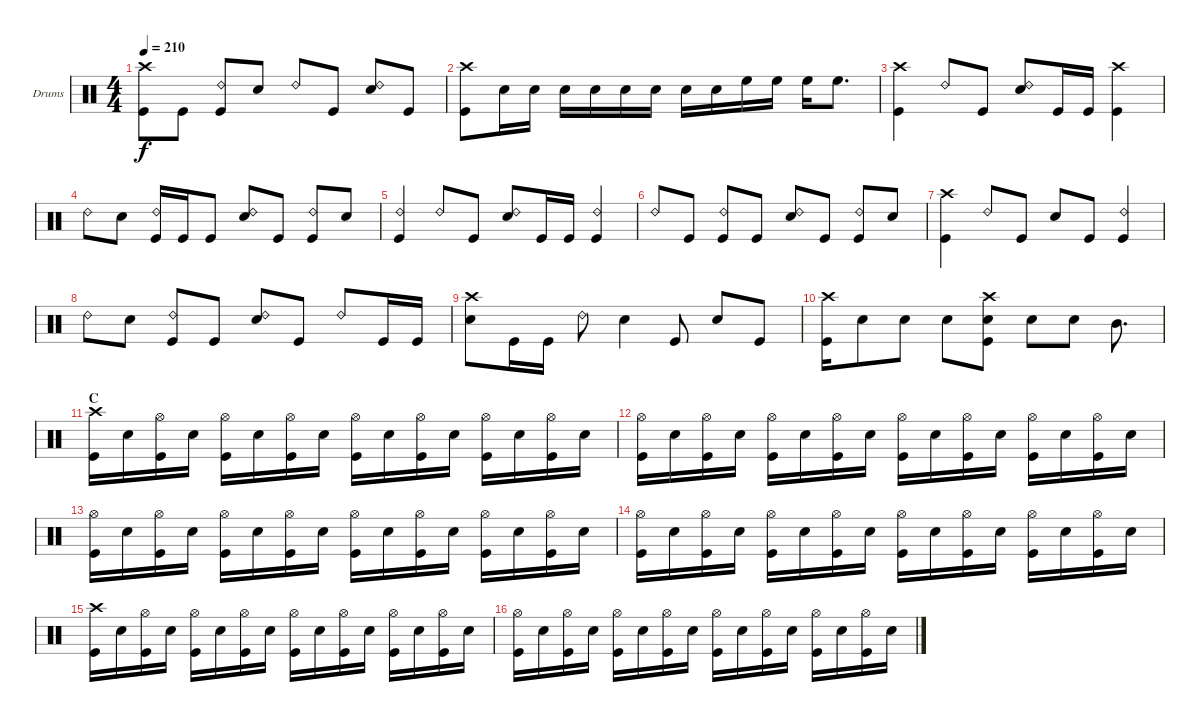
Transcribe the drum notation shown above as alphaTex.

\bracketExtendMode groupsimilarinstruments
\firstSystemTrackNameOrientation horizontal
\otherSystemsTrackNameOrientation horizontal
\track ("Drumkit" "Drums") {instrument percussion}
\staff {score}
\articulation defaults
\ts (4 4)
\tempo 210
\clef neutral
\ks c
("Crash high (hit)" "Kick (hit)").8{dy f} "Kick (hit)".8 ("Ride (bell) 2" "Kick (hit)").8 "Snare (hit) 2".8 "Ride (bell) 2".8 "Kick (hit)".8 ("Ride (bell) 2" "Snare (hit) 2").8 "Kick (hit)".8 |
("Crash high (hit)" "Kick (hit)").8 "Snare (hit) 2".16 "Snare (hit) 2".16 "Snare (hit) 2".16 "Snare (hit) 2".16 "Snare (hit) 2".16 "Snare (hit) 2".16 "Snare (hit) 2".16 "Snare (hit) 2".16 "High Floor Tom (hit)".16 "High Floor Tom (hit)".16 "High Floor Tom (hit)".16 "High Floor Tom (hit)".8{d} |
("Crash high (hit)" "Kick (hit)").4 "Ride (bell) 2".8 "Kick (hit)".8 ("Ride (bell) 2" "Snare (hit) 2").8 "Kick (hit)".16 "Kick (hit)".16 ("Crash high (hit)" "Kick (hit)").4 |
"Ride (bell) 2".8 "Snare (hit) 2".8 ("Ride (bell) 2" "Kick (hit)").16 "Kick (hit)".16 "Kick (hit)".8 ("Ride (bell) 2" "Snare (hit) 2").8 "Kick (hit)".8 ("Ride (bell) 2" "Kick (hit)").8 "Snare (hit) 2".8 |
("Ride (bell) 2" "Kick (hit)").4 "Ride (bell) 2".8 "Kick (hit)".8 ("Ride (bell) 2" "Snare (hit) 2").8 "Kick (hit)".16 "Kick (hit)".16 ("Ride (bell) 2" "Kick (hit)").4 |
"Ride (bell) 2".8 "Kick (hit)".8 ("Ride (bell) 2" "Kick (hit)").8 "Kick (hit)".8 ("Ride (bell) 2" "Snare (hit) 2").8 "Kick (hit)".8 ("Ride (bell) 2" "Kick (hit)").8 "Snare (hit) 2".8 |
("Crash high (hit)" "Kick (hit)").4 "Ride (bell) 2".8 "Kick (hit)".8 "Snare (hit) 2".8 "Kick (hit)".8 ("Ride (bell) 2" "Kick (hit)").4 |
"Ride (bell) 2".8 "Snare (hit) 2".8 ("Ride (bell) 2" "Kick (hit)").8 "Kick (hit)".8 ("Ride (bell) 2" "Snare (hit) 2").8 "Kick (hit)".8 "Ride (bell) 2".8 "Kick (hit)".16 "Kick (hit)".16 |
("Crash high (hit)" "Snare (hit) 2").8 "Kick (hit)".16 "Kick (hit)".16 "Ride (bell) 2".8 "Snare (hit) 2".4 "Kick (hit)".8 "Snare (hit) 2".8 "Kick (hit)".8 |
("Crash high (hit)" "Kick (hit)").16 "Snare (hit) 2".8 "Snare (hit) 2".8 "Snare (hit) 2".8 ("Crash high (hit)" "Snare (hit) 2" "Kick (hit)").8 "Snare (hit) 2".8 "Snare (hit) 2".8 "Mid Tom (hit)".8{d} |
\section ("" "C")
("Kick (hit)" "Crash high (hit)").16 "Snare (hit) 2".16 ("Kick (hit)" "Hi-Hat (open)").16 "Snare (hit) 2".16 ("Kick (hit)" "Hi-Hat (open)").16 "Snare (hit) 2".16 ("Kick (hit)" "Hi-Hat (open)").16 "Snare (hit) 2".16 ("Kick (hit)" "Hi-Hat (open)").16 "Snare (hit) 2".16 ("Kick (hit)" "Hi-Hat (open)").16 "Snare (hit) 2".16 ("Kick (hit)" "Hi-Hat (open)").16 "Snare (hit) 2".16 ("Kick (hit)" "Hi-Hat (open)").16 "Snare (hit) 2".16 |
("Kick (hit)" "Hi-Hat (open)").16 "Snare (hit) 2".16 ("Kick (hit)" "Hi-Hat (open)").16 "Snare (hit) 2".16 ("Kick (hit)" "Hi-Hat (open)").16 "Snare (hit) 2".16 ("Kick (hit)" "Hi-Hat (open)").16 "Snare (hit) 2".16 ("Kick (hit)" "Hi-Hat (open)").16 "Snare (hit) 2".16 ("Kick (hit)" "Hi-Hat (open)").16 "Snare (hit) 2".16 ("Kick (hit)" "Hi-Hat (open)").16 "Snare (hit) 2".16 ("Kick (hit)" "Hi-Hat (open)").16 "Snare (hit) 2".16 |
("Kick (hit)" "Hi-Hat (open)").16 "Snare (hit) 2".16 ("Kick (hit)" "Hi-Hat (open)").16 "Snare (hit) 2".16 ("Kick (hit)" "Hi-Hat (open)").16 "Snare (hit) 2".16 ("Kick (hit)" "Hi-Hat (open)").16 "Snare (hit) 2".16 ("Kick (hit)" "Hi-Hat (open)").16 "Snare (hit) 2".16 ("Kick (hit)" "Hi-Hat (open)").16 "Snare (hit) 2".16 ("Kick (hit)" "Hi-Hat (open)").16 "Snare (hit) 2".16 ("Kick (hit)" "Hi-Hat (open)").16 "Snare (hit) 2".16 |
("Kick (hit)" "Hi-Hat (open)").16 "Snare (hit) 2".16 ("Kick (hit)" "Hi-Hat (open)").16 "Snare (hit) 2".16 ("Kick (hit)" "Hi-Hat (open)").16 "Snare (hit) 2".16 ("Kick (hit)" "Hi-Hat (open)").16 "Snare (hit) 2".16 ("Kick (hit)" "Hi-Hat (open)").16 "Snare (hit) 2".16 ("Kick (hit)" "Hi-Hat (open)").16 "Snare (hit) 2".16 ("Kick (hit)" "Hi-Hat (open)").16 "Snare (hit) 2".16 ("Kick (hit)" "Hi-Hat (open)").16 "Snare (hit) 2".16 |
("Kick (hit)" "Crash high (hit)").16 "Snare (hit) 2".16 ("Kick (hit)" "Hi-Hat (open)").16 "Snare (hit) 2".16 ("Kick (hit)" "Hi-Hat (open)").16 "Snare (hit) 2".16 ("Kick (hit)" "Hi-Hat (open)").16 "Snare (hit) 2".16 ("Kick (hit)" "Hi-Hat (open)").16 "Snare (hit) 2".16 ("Kick (hit)" "Hi-Hat (open)").16 "Snare (hit) 2".16 ("Kick (hit)" "Hi-Hat (open)").16 "Snare (hit) 2".16 ("Kick (hit)" "Hi-Hat (open)").16 "Snare (hit) 2".16 |
("Kick (hit)" "Hi-Hat (open)").16 "Snare (hit) 2".16 ("Kick (hit)" "Hi-Hat (open)").16 "Snare (hit) 2".16 ("Kick (hit)" "Hi-Hat (open)").16 "Snare (hit) 2".16 ("Kick (hit)" "Hi-Hat (open)").16 "Snare (hit) 2".16 ("Kick (hit)" "Hi-Hat (open)").16 "Snare (hit) 2".16 ("Kick (hit)" "Hi-Hat (open)").16 "Snare (hit) 2".16 ("Kick (hit)" "Hi-Hat (open)").16 "Snare (hit) 2".16 ("Kick (hit)" "Hi-Hat (open)").16 "Snare (hit) 2".16
